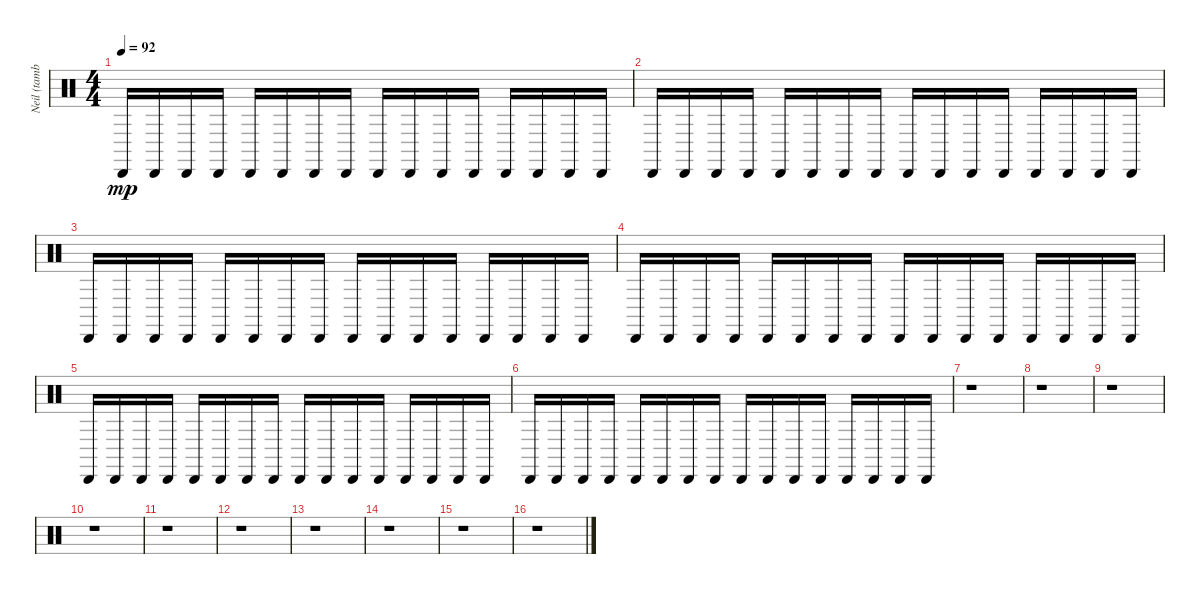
\track ("Neil (tambourine)" "Neil (tamb") {instrument percussion}
\staff {score}
\articulation defaults
\ts (4 4)
\tempo 92
\clef neutral
\ks c "Cabasa (hit)".16{dy mp} "Cabasa (hit)".16 "Cabasa (hit)".16 "Cabasa (hit)".16 "Cabasa (hit)".16 "Cabasa (hit)".16 "Cabasa (hit)".16 "Cabasa (hit)".16 "Cabasa (hit)".16 "Cabasa (hit)".16 "Cabasa (hit)".16 "Cabasa (hit)".16 "Cabasa (hit)".16 "Cabasa (hit)".16 "Cabasa (hit)".16 "Cabasa (hit)".16
|
"Cabasa (hit)".16 "Cabasa (hit)".16 "Cabasa (hit)".16 "Cabasa (hit)".16 "Cabasa (hit)".16 "Cabasa (hit)".16 "Cabasa (hit)".16 "Cabasa (hit)".16 "Cabasa (hit)".16 "Cabasa (hit)".16 "Cabasa (hit)".16 "Cabasa (hit)".16 "Cabasa (hit)".16 "Cabasa (hit)".16 "Cabasa (hit)".16 "Cabasa (hit)".16 |
"Cabasa (hit)".16 "Cabasa (hit)".16 "Cabasa (hit)".16 "Cabasa (hit)".16 "Cabasa (hit)".16 "Cabasa (hit)".16 "Cabasa (hit)".16 "Cabasa (hit)".16 "Cabasa (hit)".16 "Cabasa (hit)".16 "Cabasa (hit)".16 "Cabasa (hit)".16 "Cabasa (hit)".16 "Cabasa (hit)".16 "Cabasa (hit)".16 "Cabasa (hit)".16 |
"Cabasa (hit)".16 "Cabasa (hit)".16 "Cabasa (hit)".16 "Cabasa (hit)".16 "Cabasa (hit)".16 "Cabasa (hit)".16 "Cabasa (hit)".16 "Cabasa (hit)".16 "Cabasa (hit)".16 "Cabasa (hit)".16 "Cabasa (hit)".16 "Cabasa (hit)".16 "Cabasa (hit)".16 "Cabasa (hit)".16 "Cabasa (hit)".16 "Cabasa (hit)".16 |
"Cabasa (hit)".16 "Cabasa (hit)".16 "Cabasa (hit)".16 "Cabasa (hit)".16 "Cabasa (hit)".16 "Cabasa (hit)".16 "Cabasa (hit)".16 "Cabasa (hit)".16 "Cabasa (hit)".16 "Cabasa (hit)".16 "Cabasa (hit)".16 "Cabasa (hit)".16 "Cabasa (hit)".16 "Cabasa (hit)".16 "Cabasa (hit)".16 "Cabasa (hit)".16 |
"Cabasa (hit)".16 "Cabasa (hit)".16 "Cabasa (hit)".16 "Cabasa (hit)".16 "Cabasa (hit)".16 "Cabasa (hit)".16 "Cabasa (hit)".16 "Cabasa (hit)".16 "Cabasa (hit)".16 "Cabasa (hit)".16 "Cabasa (hit)".16 "Cabasa (hit)".16 "Cabasa (hit)".16 "Cabasa (hit)".16 "Cabasa (hit)".16 "Cabasa (hit)".16 |
r.1 |
r.1 |
r.1 |
r.1 |
r.1 |
r.1 |
r.1 |
r.1 |
r.1 |
r.1
